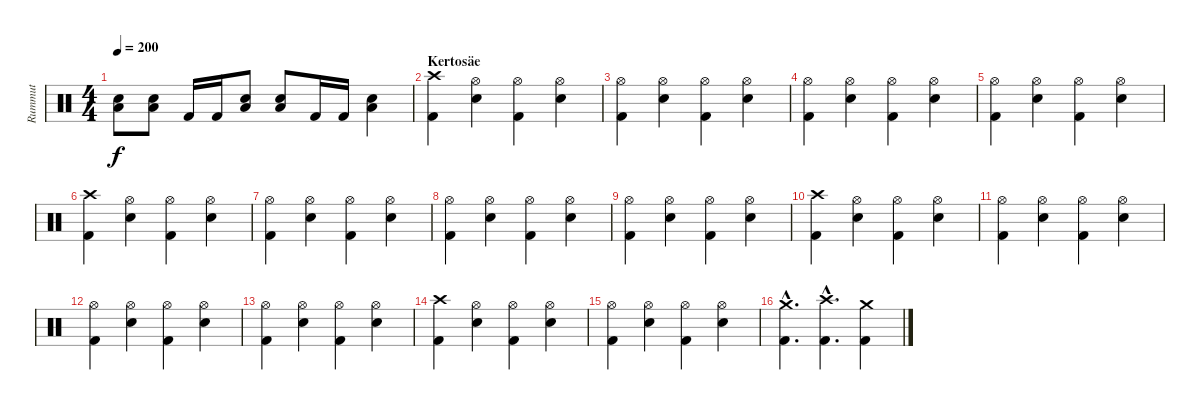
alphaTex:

\track ("Rummut" "Rummut") {instrument percussion}
\staff {score}
\articulation defaults
\ts (4 4)
\tempo 200
\clef neutral
\ks c
("Electric Snare (hit)" "Low Floor Tom (hit)").8{dy f} ("Electric Snare (hit)" "Low Floor Tom (hit)").8 "Kick (hit) 2".16 "Kick (hit) 2".16 ("Electric Snare (hit)" "Low Floor Tom (hit)").8 ("Electric Snare (hit)" "Low Floor Tom (hit)").8 "Kick (hit) 2".16 "Kick (hit) 2".16 ("Electric Snare (hit)" "Low Floor Tom (hit)").4 |
\section ("" "Kertosäe")
("Crash high (hit)" "Kick (hit) 2").4 ("Hi-Hat (open)" "Electric Snare (hit)").4 ("Hi-Hat (open)" "Kick (hit) 2").4 ("Hi-Hat (open)" "Electric Snare (hit)").4 |
("Hi-Hat (open)" "Kick (hit) 2").4 ("Hi-Hat (open)" "Electric Snare (hit)").4 ("Hi-Hat (open)" "Kick (hit) 2").4 ("Hi-Hat (open)" "Electric Snare (hit)").4 |
("Hi-Hat (open)" "Kick (hit) 2").4 ("Hi-Hat (open)" "Electric Snare (hit)").4 ("Hi-Hat (open)" "Kick (hit) 2").4 ("Hi-Hat (open)" "Electric Snare (hit)").4 |
("Hi-Hat (open)" "Kick (hit) 2").4 ("Hi-Hat (open)" "Electric Snare (hit)").4 ("Hi-Hat (open)" "Kick (hit) 2").4 ("Hi-Hat (open)" "Electric Snare (hit)").4 |
("Crash high (hit)" "Kick (hit) 2").4 ("Hi-Hat (open)" "Electric Snare (hit)").4 ("Hi-Hat (open)" "Kick (hit) 2").4 ("Hi-Hat (open)" "Electric Snare (hit)").4 |
("Hi-Hat (open)" "Kick (hit) 2").4 ("Hi-Hat (open)" "Electric Snare (hit)").4 ("Hi-Hat (open)" "Kick (hit) 2").4 ("Hi-Hat (open)" "Electric Snare (hit)").4 |
("Hi-Hat (open)" "Kick (hit) 2").4 ("Hi-Hat (open)" "Electric Snare (hit)").4 ("Hi-Hat (open)" "Kick (hit) 2").4 ("Hi-Hat (open)" "Electric Snare (hit)").4 |
("Hi-Hat (open)" "Kick (hit) 2").4 ("Hi-Hat (open)" "Electric Snare (hit)").4 ("Hi-Hat (open)" "Kick (hit) 2").4 ("Hi-Hat (open)" "Electric Snare (hit)").4 |
("Crash high (hit)" "Kick (hit) 2").4 ("Hi-Hat (open)" "Electric Snare (hit)").4 ("Hi-Hat (open)" "Kick (hit) 2").4 ("Hi-Hat (open)" "Electric Snare (hit)").4 |
("Hi-Hat (open)" "Kick (hit) 2").4 ("Hi-Hat (open)" "Electric Snare (hit)").4 ("Hi-Hat (open)" "Kick (hit) 2").4 ("Hi-Hat (open)" "Electric Snare (hit)").4 |
("Hi-Hat (open)" "Kick (hit) 2").4 ("Hi-Hat (open)" "Electric Snare (hit)").4 ("Hi-Hat (open)" "Kick (hit) 2").4 ("Hi-Hat (open)" "Electric Snare (hit)").4 |
("Hi-Hat (open)" "Kick (hit) 2").4 ("Hi-Hat (open)" "Electric Snare (hit)").4 ("Hi-Hat (open)" "Kick (hit) 2").4 ("Hi-Hat (open)" "Electric Snare (hit)").4 |
("Crash high (hit)" "Kick (hit) 2").4 ("Hi-Hat (open)" "Electric Snare (hit)").4 ("Hi-Hat (open)" "Kick (hit) 2").4 ("Hi-Hat (open)" "Electric Snare (hit)").4 |
("Hi-Hat (open)" "Kick (hit) 2").4 ("Hi-Hat (open)" "Electric Snare (hit)").4 ("Hi-Hat (open)" "Kick (hit) 2").4 ("Hi-Hat (open)" "Electric Snare (hit)").4 |
("Crash medium (hit)"{hac} "Kick (hit) 2"{hac}).4{d} ("Crash high (hit)"{hac} "Kick (hit) 2"{hac}).4{d} ("Crash medium (hit)" "Kick (hit) 2").4
